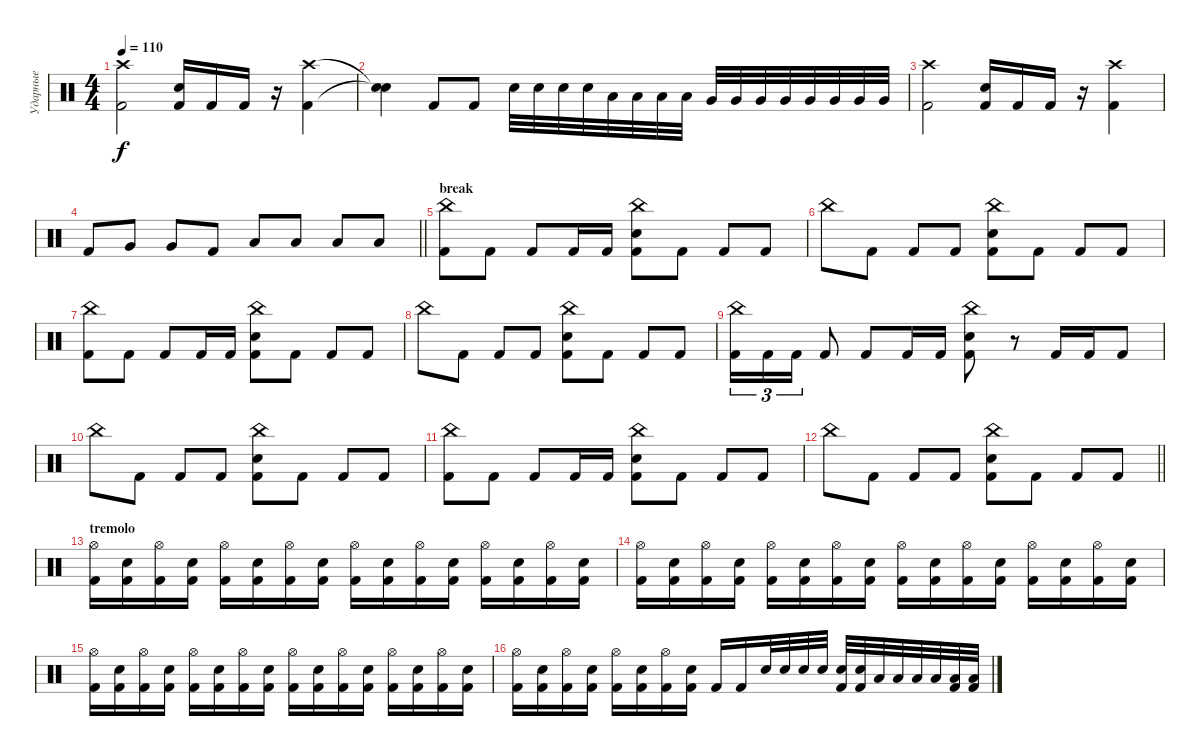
\track ("Ударные" "Ударные") {instrument percussion}
\staff {score}
\articulation defaults
\ts (4 4)
\tempo 110
\clef neutral
\ks c
("Crash high (hit)" "Kick (hit) 2").2{dy f} ("Electric Snare (hit)" "Kick (hit) 2").16 "Kick (hit) 2".16 "Kick (hit) 2".16 r.16 ("Crash high (hit)" "Kick (hit) 2").4 |
("Snare (hit)"{t} "Snare (hit)"{t}).4 "Kick (hit) 2".8 "Kick (hit) 2".8 "Electric Snare (hit)".32 "Electric Snare (hit)".32 "Electric Snare (hit)".32 "Electric Snare (hit)".32 "Low Tom (hit)".32 "Low Tom (hit)".32 "Low Tom (hit)".32 "Low Tom (hit)".32 "Very Low Tom (hit)".32 "Very Low Tom (hit)".32 "Very Low Tom (hit)".32 "Very Low Tom (hit)".32 "Very Low Tom (hit)".32 "Very Low Tom (hit)".32 "Very Low Tom (hit)".32 "Very Low Tom (hit)".32 |
("Crash high (hit)" "Kick (hit) 2").2 ("Electric Snare (hit)" "Kick (hit) 2").16 "Kick (hit) 2".16 "Kick (hit) 2".16 r.16 ("Crash high (hit)" "Kick (hit) 2").4 |
\barLineRight lightlight "Kick (hit) 2".8 "Very Low Tom (hit)".8 "Very Low Tom (hit)".8 "Kick (hit) 2".8 "Low Tom (hit)".8 "Low Tom (hit)".8 "Low Tom (hit)".8 "Low Tom (hit)".8
|
\section ("" "break")
("China (hit)" "Kick (hit) 2").8 "Kick (hit) 2".8 "Kick (hit) 2".8 "Kick (hit) 2".16 "Kick (hit) 2".16 ("China (hit)" "Electric Snare (hit)" "Kick (hit) 2").8 "Kick (hit) 2".8 "Kick (hit) 2".8 "Kick (hit) 2".8 |
"China (hit)".8 "Kick (hit) 2".8 "Kick (hit) 2".8 "Kick (hit) 2".8 ("China (hit)" "Electric Snare (hit)" "Kick (hit) 2").8 "Kick (hit) 2".8 "Kick (hit) 2".8 "Kick (hit) 2".8 |
("China (hit)" "Kick (hit) 2").8 "Kick (hit) 2".8 "Kick (hit) 2".8 "Kick (hit) 2".16 "Kick (hit) 2".16 ("China (hit)" "Electric Snare (hit)" "Kick (hit) 2").8 "Kick (hit) 2".8 "Kick (hit) 2".8 "Kick (hit) 2".8 |
"China (hit)".8 "Kick (hit) 2".8 "Kick (hit) 2".8 "Kick (hit) 2".8 ("China (hit)" "Electric Snare (hit)" "Kick (hit) 2").8 "Kick (hit) 2".8 "Kick (hit) 2".8 "Kick (hit) 2".8 |
("China (hit)" "Kick (hit) 2").16{tu (3 2)} "Kick (hit) 2".16{tu (3 2)} "Kick (hit) 2".16{tu (3 2)} "Kick (hit) 2".8 "Kick (hit) 2".8 "Kick (hit) 2".16 "Kick (hit) 2".16 ("China (hit)" "Electric Snare (hit)" "Kick (hit) 2").8 r.8 "Kick (hit) 2".16 "Kick (hit) 2".16 "Kick (hit) 2".8 |
"China (hit)".8 "Kick (hit) 2".8 "Kick (hit) 2".8 "Kick (hit) 2".8 ("China (hit)" "Electric Snare (hit)" "Kick (hit) 2").8 "Kick (hit) 2".8 "Kick (hit) 2".8 "Kick (hit) 2".8 |
("China (hit)" "Kick (hit) 2").8 "Kick (hit) 2".8 "Kick (hit) 2".8 "Kick (hit) 2".16 "Kick (hit) 2".16 ("China (hit)" "Electric Snare (hit)" "Kick (hit) 2").8 "Kick (hit) 2".8 "Kick (hit) 2".8 "Kick (hit) 2".8 |
\barLineRight lightlight "China (hit)".8 "Kick (hit) 2".8 "Kick (hit) 2".8 "Kick (hit) 2".8
("China (hit)" "Electric Snare (hit)" "Kick (hit) 2").8 "Kick (hit) 2".8 "Kick (hit) 2".8 "Kick (hit) 2".8 |
\section ("" "tremolo")
("Hi-Hat (open)" "Kick (hit) 2").16 ("Electric Snare (hit)" "Kick (hit) 2").16 ("Hi-Hat (open)" "Kick (hit) 2").16 ("Electric Snare (hit)" "Kick (hit) 2").16 ("Hi-Hat (open)" "Kick (hit) 2").16 ("Electric Snare (hit)" "Kick (hit) 2").16 ("Hi-Hat (open)" "Kick (hit) 2").16 ("Electric Snare (hit)" "Kick (hit) 2").16 ("Hi-Hat (open)" "Kick (hit) 2").16 ("Electric Snare (hit)" "Kick (hit) 2").16 ("Hi-Hat (open)" "Kick (hit) 2").16 ("Electric Snare (hit)" "Kick (hit) 2").16 ("Hi-Hat (open)" "Kick (hit) 2").16 ("Electric Snare (hit)" "Kick (hit) 2").16 ("Hi-Hat (open)" "Kick (hit) 2").16 ("Electric Snare (hit)" "Kick (hit) 2").16 |
("Hi-Hat (open)" "Kick (hit) 2").16 ("Electric Snare (hit)" "Kick (hit) 2").16 ("Hi-Hat (open)" "Kick (hit) 2").16 ("Electric Snare (hit)" "Kick (hit) 2").16 ("Hi-Hat (open)" "Kick (hit) 2").16 ("Electric Snare (hit)" "Kick (hit) 2").16 ("Hi-Hat (open)" "Kick (hit) 2").16 ("Electric Snare (hit)" "Kick (hit) 2").16 ("Hi-Hat (open)" "Kick (hit) 2").16 ("Electric Snare (hit)" "Kick (hit) 2").16 ("Hi-Hat (open)" "Kick (hit) 2").16 ("Electric Snare (hit)" "Kick (hit) 2").16 ("Hi-Hat (open)" "Kick (hit) 2").16 ("Electric Snare (hit)" "Kick (hit) 2").16 ("Hi-Hat (open)" "Kick (hit) 2").16 ("Electric Snare (hit)" "Kick (hit) 2").16 |
("Hi-Hat (open)" "Kick (hit) 2").16 ("Electric Snare (hit)" "Kick (hit) 2").16 ("Hi-Hat (open)" "Kick (hit) 2").16 ("Electric Snare (hit)" "Kick (hit) 2").16 ("Hi-Hat (open)" "Kick (hit) 2").16 ("Electric Snare (hit)" "Kick (hit) 2").16 ("Hi-Hat (open)" "Kick (hit) 2").16 ("Electric Snare (hit)" "Kick (hit) 2").16 ("Hi-Hat (open)" "Kick (hit) 2").16 ("Electric Snare (hit)" "Kick (hit) 2").16 ("Hi-Hat (open)" "Kick (hit) 2").16 ("Electric Snare (hit)" "Kick (hit) 2").16 ("Hi-Hat (open)" "Kick (hit) 2").16 ("Electric Snare (hit)" "Kick (hit) 2").16 ("Hi-Hat (open)" "Kick (hit) 2").16 ("Electric Snare (hit)" "Kick (hit) 2").16 |
("Hi-Hat (open)" "Kick (hit) 2").16 ("Electric Snare (hit)" "Kick (hit) 2").16 ("Hi-Hat (open)" "Kick (hit) 2").16 ("Electric Snare (hit)" "Kick (hit) 2").16 ("Hi-Hat (open)" "Kick (hit) 2").16 ("Electric Snare (hit)" "Kick (hit) 2").16 ("Hi-Hat (open)" "Kick (hit) 2").16 ("Electric Snare (hit)" "Kick (hit) 2").16 "Kick (hit) 2".16 "Kick (hit) 2".16 "Electric Snare (hit)".32 "Electric Snare (hit)".32 "Electric Snare (hit)".32 "Electric Snare (hit)".32 ("Electric Snare (hit)" "Kick (hit) 2").32 ("Electric Snare (hit)" "Kick (hit) 2").32 "Low Tom (hit)".32 "Low Tom (hit)".32 "Low Tom (hit)".32 "Low Tom (hit)".32 ("Low Tom (hit)" "Kick (hit) 2").32 ("Low Tom (hit)" "Kick (hit) 2").32
